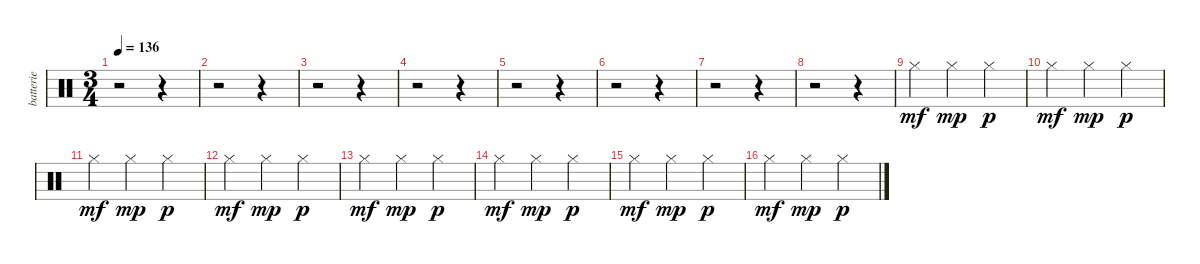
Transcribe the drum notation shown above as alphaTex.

\track ("batterie" "batterie") {instrument percussion}
\staff {score}
\articulation defaults
\ts (3 4)
\tempo 136
\clef neutral
\ks c
r.2{dy mf} r.4 |
r.2 r.4 |
r.2 r.4 |
r.2 r.4 |
r.2 r.4 |
r.2 r.4 |
r.2 r.4 |
r.2 r.4 |
"Hi-Hat (closed)".4 "Hi-Hat (closed)".4{dy mp} "Hi-Hat (closed)".4{dy p} |
"Hi-Hat (closed)".4{dy mf} "Hi-Hat (closed)".4{dy mp} "Hi-Hat (closed)".4{dy p} |
"Hi-Hat (closed)".4{dy mf} "Hi-Hat (closed)".4{dy mp} "Hi-Hat (closed)".4{dy p} |
"Hi-Hat (closed)".4{dy mf} "Hi-Hat (closed)".4{dy mp} "Hi-Hat (closed)".4{dy p} |
"Hi-Hat (closed)".4{dy mf} "Hi-Hat (closed)".4{dy mp} "Hi-Hat (closed)".4{dy p} |
"Hi-Hat (closed)".4{dy mf} "Hi-Hat (closed)".4{dy mp} "Hi-Hat (closed)".4{dy p} |
"Hi-Hat (closed)".4{dy mf} "Hi-Hat (closed)".4{dy mp} "Hi-Hat (closed)".4{dy p} |
"Hi-Hat (closed)".4{dy mf} "Hi-Hat (closed)".4{dy mp} "Hi-Hat (closed)".4{dy p}
